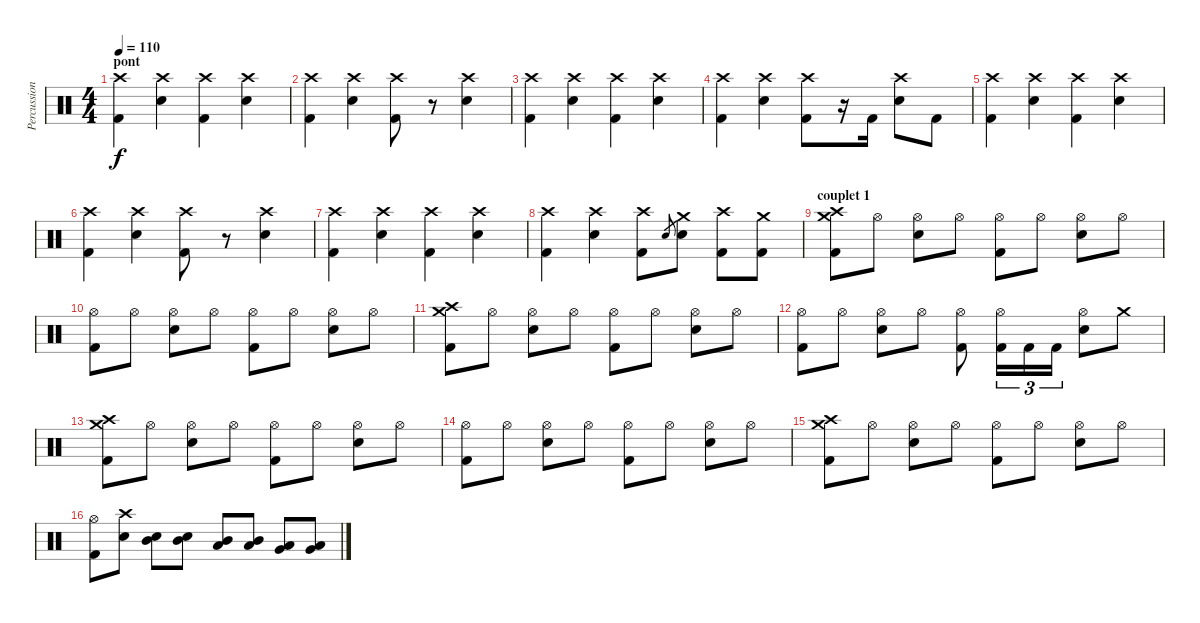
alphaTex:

\track ("Percussions" "Percussion") {instrument percussion}
\staff {score}
\articulation defaults
\ts (4 4)
\section ("" "pont")
\tempo 110
\clef neutral
\ks c
("Crash high (hit)" "Kick (hit) 2").4{dy f} ("Crash high (hit)" "Electric Snare (hit)").4 ("Crash high (hit)" "Kick (hit) 2").4 ("Crash high (hit)" "Electric Snare (hit)").4 |
("Crash high (hit)" "Kick (hit) 2").4 ("Crash high (hit)" "Electric Snare (hit)").4 ("Crash high (hit)" "Kick (hit) 2").8 r.8 ("Crash high (hit)" "Electric Snare (hit)").4 |
("Crash high (hit)" "Kick (hit) 2").4 ("Crash high (hit)" "Electric Snare (hit)").4 ("Crash high (hit)" "Kick (hit) 2").4 ("Crash high (hit)" "Electric Snare (hit)").4 |
("Crash high (hit)" "Kick (hit) 2").4 ("Crash high (hit)" "Electric Snare (hit)").4 ("Crash high (hit)" "Kick (hit) 2").8 r.16 "Kick (hit) 2".16 ("Crash high (hit)" "Electric Snare (hit)").8 "Kick (hit) 2".8 |
("Crash high (hit)" "Kick (hit) 2").4 ("Crash high (hit)" "Electric Snare (hit)").4 ("Crash high (hit)" "Kick (hit) 2").4 ("Crash high (hit)" "Electric Snare (hit)").4 |
("Crash high (hit)" "Kick (hit) 2").4 ("Crash high (hit)" "Electric Snare (hit)").4 ("Crash high (hit)" "Kick (hit) 2").8 r.8 ("Crash high (hit)" "Electric Snare (hit)").4 |
("Crash high (hit)" "Kick (hit) 2").4 ("Crash high (hit)" "Electric Snare (hit)").4 ("Crash high (hit)" "Kick (hit) 2").4 ("Crash high (hit)" "Electric Snare (hit)").4 |
("Crash high (hit)" "Kick (hit) 2").4 ("Crash high (hit)" "Electric Snare (hit)").4 ("Crash high (hit)" "Kick (hit) 2").8 "Electric Snare (hit)".8{gr} ("Crash medium (hit)" "Electric Snare (hit)").8 ("Crash high (hit)" "Kick (hit) 2").8 ("Crash medium (hit)" "Kick (hit) 2").8 |
\section ("" "couplet 1")
("Crash high (hit)" "Crash medium (hit)" "Kick (hit) 2").8 "Hi-Hat (open)".8 ("Hi-Hat (open)" "Electric Snare (hit)").8 "Hi-Hat (open)".8 ("Hi-Hat (open)" "Kick (hit) 2").8 "Hi-Hat (open)".8 ("Hi-Hat (open)" "Electric Snare (hit)").8 "Hi-Hat (open)".8 |
("Hi-Hat (open)" "Kick (hit) 2").8 "Hi-Hat (open)".8 ("Hi-Hat (open)" "Electric Snare (hit)").8 "Hi-Hat (open)".8 ("Hi-Hat (open)" "Kick (hit) 2").8 "Hi-Hat (open)".8 ("Hi-Hat (open)" "Electric Snare (hit)").8 "Hi-Hat (open)".8 |
("Crash high (hit)" "Crash medium (hit)" "Kick (hit) 2").8 "Hi-Hat (open)".8 ("Hi-Hat (open)" "Electric Snare (hit)").8 "Hi-Hat (open)".8 ("Hi-Hat (open)" "Kick (hit) 2").8 "Hi-Hat (open)".8 ("Hi-Hat (open)" "Electric Snare (hit)").8 "Hi-Hat (open)".8 |
("Hi-Hat (open)" "Kick (hit) 2").8 "Hi-Hat (open)".8 ("Hi-Hat (open)" "Electric Snare (hit)").8 "Hi-Hat (open)".8 ("Hi-Hat (open)" "Kick (hit) 2").8 ("Hi-Hat (open)" "Kick (hit) 2").16{tu (3 2)} "Kick (hit) 2".16{tu (3 2)} "Kick (hit) 2".16{tu (3 2)} ("Hi-Hat (open)" "Electric Snare (hit)").8 "Crash medium (hit)".8 |
("Crash high (hit)" "Crash medium (hit)" "Kick (hit) 2").8 "Hi-Hat (open)".8 ("Hi-Hat (open)" "Electric Snare (hit)").8 "Hi-Hat (open)".8 ("Hi-Hat (open)" "Kick (hit) 2").8 "Hi-Hat (open)".8 ("Hi-Hat (open)" "Electric Snare (hit)").8 "Hi-Hat (open)".8 |
("Hi-Hat (open)" "Kick (hit) 2").8 "Hi-Hat (open)".8 ("Hi-Hat (open)" "Electric Snare (hit)").8 "Hi-Hat (open)".8 ("Hi-Hat (open)" "Kick (hit) 2").8 "Hi-Hat (open)".8 ("Hi-Hat (open)" "Electric Snare (hit)").8 "Hi-Hat (open)".8 |
("Crash high (hit)" "Crash medium (hit)" "Kick (hit) 2").8 "Hi-Hat (open)".8 ("Hi-Hat (open)" "Electric Snare (hit)").8 "Hi-Hat (open)".8 ("Hi-Hat (open)" "Kick (hit) 2").8 "Hi-Hat (open)".8 ("Hi-Hat (open)" "Electric Snare (hit)").8 "Hi-Hat (open)".8 |
("Hi-Hat (open)" "Kick (hit) 2").8 ("Crash high (hit)" "Electric Snare (hit)").8 ("Mid Tom (hit)" "Electric Snare (hit)").8 ("Mid Tom (hit)" "Electric Snare (hit)").8 ("Mid Tom (hit)" "Low Tom (hit)").8 ("Mid Tom (hit)" "Low Tom (hit)").8 ("Low Tom (hit)" "Very Low Tom (hit)").8 ("Low Tom (hit)" "Very Low Tom (hit)").8
